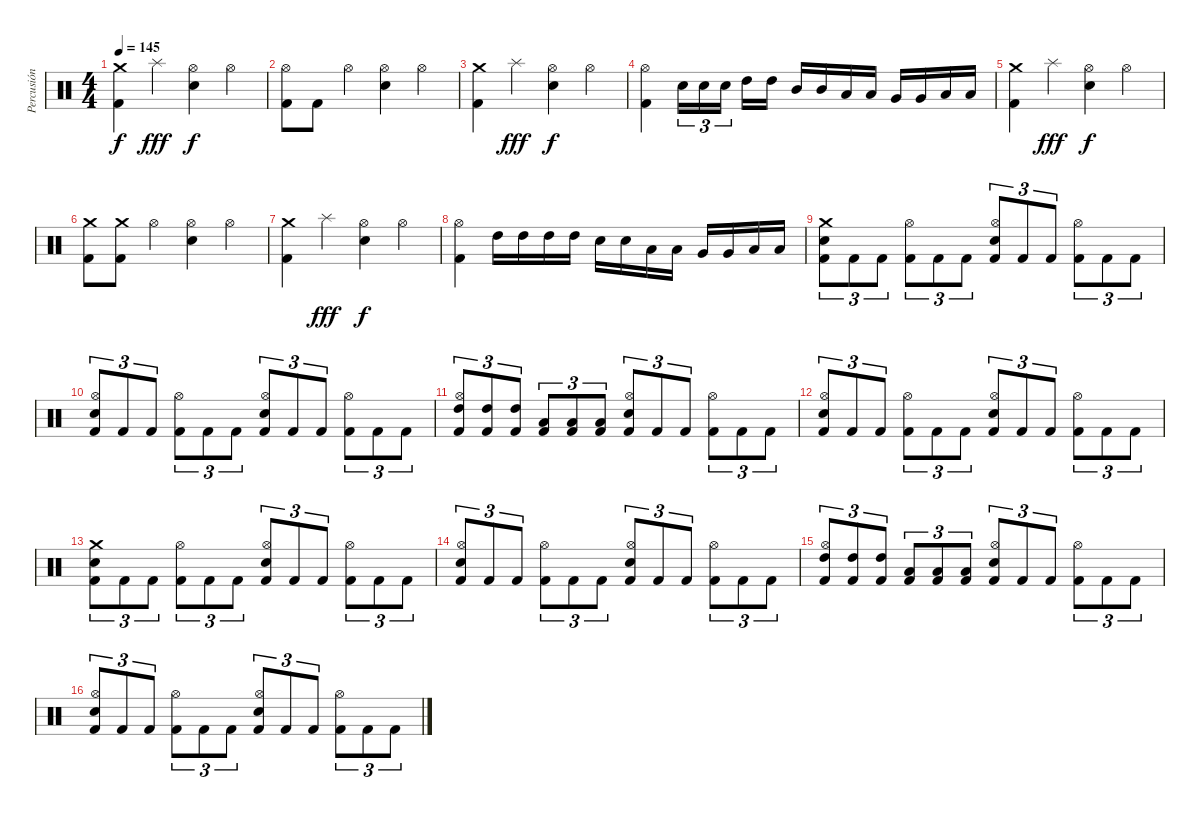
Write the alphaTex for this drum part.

\track ("Percusión" "Percusión") {instrument percussion}
\staff {score}
\articulation defaults
\ts (4 4)
\tempo 145
\clef neutral
\ks c
("Crash medium (hit)" "Kick (hit) 2").4{dy f} "Splash (hit)".4{dy fff} ("Hi-Hat (open)" "Electric Snare (hit)").4{dy f} "Hi-Hat (open)".4 |
("Hi-Hat (open)" "Kick (hit) 2").8 "Kick (hit) 2".8 "Hi-Hat (open)".4 ("Hi-Hat (open)" "Electric Snare (hit)").4 "Hi-Hat (open)".4 |
("Crash medium (hit)" "Kick (hit) 2").4 "Splash (hit)".4{dy fff} ("Hi-Hat (open)" "Electric Snare (hit)").4{dy f} "Hi-Hat (open)".4 |
("Hi-Hat (open)" "Kick (hit) 2").4 "Electric Snare (hit)".16{tu (3 2)} "Electric Snare (hit)".16{tu (3 2)} "Electric Snare (hit)".16{tu (3 2)} "High Tom (hit)".16 "High Tom (hit)".16 "Mid Tom (hit)".16 "Mid Tom (hit)".16 "Low Tom (hit)".16 "Low Tom (hit)".16 "Very Low Tom (hit)".16 "Very Low Tom (hit)".16 "Low Floor Tom (hit)".16 "Low Floor Tom (hit)".16 |
("Crash medium (hit)" "Kick (hit) 2").4 "Splash (hit)".4{dy fff} ("Hi-Hat (open)" "Electric Snare (hit)").4{dy f} "Hi-Hat (open)".4 |
("Crash medium (hit)" "Kick (hit) 2").8 ("Crash medium (hit)" "Kick (hit) 2").8 "Hi-Hat (open)".4 ("Hi-Hat (open)" "Electric Snare (hit)").4 "Hi-Hat (open)".4 |
("Crash medium (hit)" "Kick (hit) 2").4 "Splash (hit)".4{dy fff} ("Hi-Hat (open)" "Electric Snare (hit)").4{dy f} "Hi-Hat (open)".4 |
("Hi-Hat (open)" "Kick (hit) 2").4 "High Tom (hit)".16 "High Tom (hit)".16 "High Tom (hit)".16 "High Tom (hit)".16 "Electric Snare (hit)".16 "Electric Snare (hit)".16 "Low Tom (hit)".16 "Low Tom (hit)".16 "Very Low Tom (hit)".16 "Very Low Tom (hit)".16 "Low Floor Tom (hit)".16 "Low Floor Tom (hit)".16 |
("Crash medium (hit)" "Electric Snare (hit)" "Kick (hit) 2").8{tu (3 2)} "Kick (hit) 2".8{tu (3 2)} "Kick (hit) 2".8{tu (3 2)} ("Hi-Hat (open)" "Kick (hit) 2").8{tu (3 2)} "Kick (hit) 2".8{tu (3 2)} "Kick (hit) 2".8{tu (3 2)} ("Hi-Hat (open)" "Electric Snare (hit)" "Kick (hit) 2").8{tu (3 2)} "Kick (hit) 2".8{tu (3 2)} "Kick (hit) 2".8{tu (3 2)} ("Hi-Hat (open)" "Kick (hit) 2").8{tu (3 2)} "Kick (hit) 2".8{tu (3 2)} "Kick (hit) 2".8{tu (3 2)} |
("Hi-Hat (open)" "Electric Snare (hit)" "Kick (hit) 2").8{tu (3 2)} "Kick (hit) 2".8{tu (3 2)} "Kick (hit) 2".8{tu (3 2)} ("Hi-Hat (open)" "Kick (hit) 2").8{tu (3 2)} "Kick (hit) 2".8{tu (3 2)} "Kick (hit) 2".8{tu (3 2)} ("Hi-Hat (open)" "Electric Snare (hit)" "Kick (hit) 2").8{tu (3 2)} "Kick (hit) 2".8{tu (3 2)} "Kick (hit) 2".8{tu (3 2)} ("Hi-Hat (open)" "Kick (hit) 2").8{tu (3 2)} "Kick (hit) 2".8{tu (3 2)} "Kick (hit) 2".8{tu (3 2)} |
("Hi-Hat (open)" "High Tom (hit)" "Kick (hit) 2").8{tu (3 2)} ("High Tom (hit)" "Kick (hit) 2").8{tu (3 2)} ("High Tom (hit)" "Kick (hit) 2").8{tu (3 2)} ("Low Tom (hit)" "Kick (hit) 2").8{tu (3 2)} ("Low Tom (hit)" "Kick (hit) 2").8{tu (3 2)} ("Low Tom (hit)" "Kick (hit) 2").8{tu (3 2)} ("Hi-Hat (open)" "Electric Snare (hit)" "Kick (hit) 2").8{tu (3 2)} "Kick (hit) 2".8{tu (3 2)} "Kick (hit) 2".8{tu (3 2)} ("Hi-Hat (open)" "Kick (hit) 2").8{tu (3 2)} "Kick (hit) 2".8{tu (3 2)} "Kick (hit) 2".8{tu (3 2)} |
("Hi-Hat (open)" "Electric Snare (hit)" "Kick (hit) 2").8{tu (3 2)} "Kick (hit) 2".8{tu (3 2)} "Kick (hit) 2".8{tu (3 2)} ("Hi-Hat (open)" "Kick (hit) 2").8{tu (3 2)} "Kick (hit) 2".8{tu (3 2)} "Kick (hit) 2".8{tu (3 2)} ("Hi-Hat (open)" "Electric Snare (hit)" "Kick (hit) 2").8{tu (3 2)} "Kick (hit) 2".8{tu (3 2)} "Kick (hit) 2".8{tu (3 2)} ("Hi-Hat (open)" "Kick (hit) 2").8{tu (3 2)} "Kick (hit) 2".8{tu (3 2)} "Kick (hit) 2".8{tu (3 2)} |
("Crash medium (hit)" "Electric Snare (hit)" "Kick (hit) 2").8{tu (3 2)} "Kick (hit) 2".8{tu (3 2)} "Kick (hit) 2".8{tu (3 2)} ("Hi-Hat (open)" "Kick (hit) 2").8{tu (3 2)} "Kick (hit) 2".8{tu (3 2)} "Kick (hit) 2".8{tu (3 2)} ("Hi-Hat (open)" "Electric Snare (hit)" "Kick (hit) 2").8{tu (3 2)} "Kick (hit) 2".8{tu (3 2)} "Kick (hit) 2".8{tu (3 2)} ("Hi-Hat (open)" "Kick (hit) 2").8{tu (3 2)} "Kick (hit) 2".8{tu (3 2)} "Kick (hit) 2".8{tu (3 2)} |
("Hi-Hat (open)" "Electric Snare (hit)" "Kick (hit) 2").8{tu (3 2)} "Kick (hit) 2".8{tu (3 2)} "Kick (hit) 2".8{tu (3 2)} ("Hi-Hat (open)" "Kick (hit) 2").8{tu (3 2)} "Kick (hit) 2".8{tu (3 2)} "Kick (hit) 2".8{tu (3 2)} ("Hi-Hat (open)" "Electric Snare (hit)" "Kick (hit) 2").8{tu (3 2)} "Kick (hit) 2".8{tu (3 2)} "Kick (hit) 2".8{tu (3 2)} ("Hi-Hat (open)" "Kick (hit) 2").8{tu (3 2)} "Kick (hit) 2".8{tu (3 2)} "Kick (hit) 2".8{tu (3 2)} |
("Hi-Hat (open)" "High Tom (hit)" "Kick (hit) 2").8{tu (3 2)} ("High Tom (hit)" "Kick (hit) 2").8{tu (3 2)} ("High Tom (hit)" "Kick (hit) 2").8{tu (3 2)} ("Low Tom (hit)" "Kick (hit) 2").8{tu (3 2)} ("Low Tom (hit)" "Kick (hit) 2").8{tu (3 2)} ("Low Tom (hit)" "Kick (hit) 2").8{tu (3 2)} ("Hi-Hat (open)" "Electric Snare (hit)" "Kick (hit) 2").8{tu (3 2)} "Kick (hit) 2".8{tu (3 2)} "Kick (hit) 2".8{tu (3 2)} ("Hi-Hat (open)" "Kick (hit) 2").8{tu (3 2)} "Kick (hit) 2".8{tu (3 2)} "Kick (hit) 2".8{tu (3 2)} |
("Hi-Hat (open)" "Electric Snare (hit)" "Kick (hit) 2").8{tu (3 2)} "Kick (hit) 2".8{tu (3 2)} "Kick (hit) 2".8{tu (3 2)} ("Hi-Hat (open)" "Kick (hit) 2").8{tu (3 2)} "Kick (hit) 2".8{tu (3 2)} "Kick (hit) 2".8{tu (3 2)} ("Hi-Hat (open)" "Electric Snare (hit)" "Kick (hit) 2").8{tu (3 2)} "Kick (hit) 2".8{tu (3 2)} "Kick (hit) 2".8{tu (3 2)} ("Hi-Hat (open)" "Kick (hit) 2").8{tu (3 2)} "Kick (hit) 2".8{tu (3 2)} "Kick (hit) 2".8{tu (3 2)}
